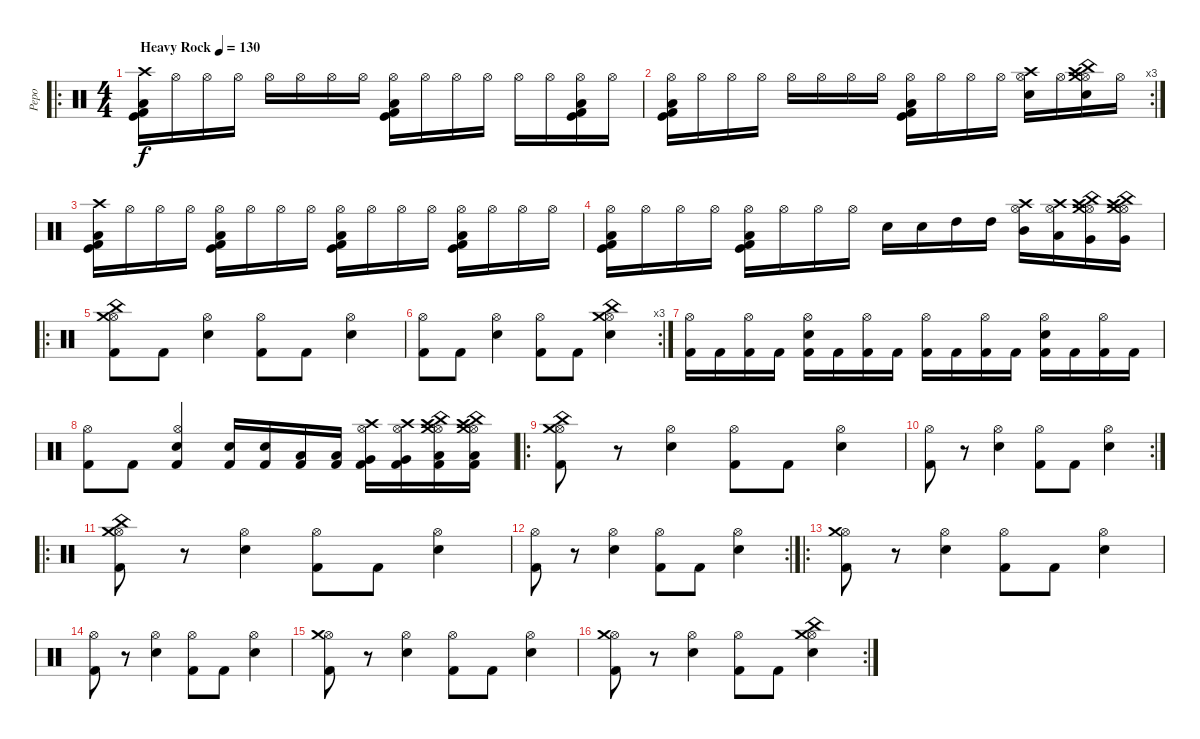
\track ("Pepo" "Pepo") {instrument percussion}
\staff {score}
\articulation defaults
\ro
\ts (4 4)
\tempo (130 "Heavy Rock")
\clef neutral
\ks c
("Crash high (hit)" "Low Floor Tom (hit)" "Kick (hit)" "Kick (hit) 2").16{dy f} "Hi-Hat (open)".16 "Hi-Hat (open)".16 "Hi-Hat (open)".16 "Hi-Hat (open)".16 "Hi-Hat (open)".16 "Hi-Hat (open)".16 "Hi-Hat (open)".16 ("Hi-Hat (open)" "Low Floor Tom (hit)" "Kick (hit)" "Kick (hit) 2").16 "Hi-Hat (open)".16 "Hi-Hat (open)".16 "Hi-Hat (open)".16 "Hi-Hat (open)".16 "Hi-Hat (open)".16 ("Hi-Hat (open)" "Low Floor Tom (hit)" "Kick (hit)" "Kick (hit) 2").16 "Hi-Hat (open)".16 |
\rc 3
("Hi-Hat (open)" "Low Floor Tom (hit)" "Kick (hit)" "Kick (hit) 2").16 "Hi-Hat (open)".16 "Hi-Hat (open)".16 "Hi-Hat (open)".16 "Hi-Hat (open)".16 "Hi-Hat (open)".16 "Hi-Hat (open)".16 "Hi-Hat (open)".16 ("Hi-Hat (open)" "Low Floor Tom (hit)" "Kick (hit)" "Kick (hit) 2").16 "Hi-Hat (open)".16 "Hi-Hat (open)".16 "Hi-Hat (open)".16 ("Hi-Hat (open)" "Crash high (hit)" "Electric Snare (hit)").16 "Hi-Hat (open)".16 ("Hi-Hat (open)" "Crash high (hit)" "China (hit)" "Crash medium (hit)" "Electric Snare (hit)").16 "Hi-Hat (open)".16 |
("Crash high (hit)" "Low Floor Tom (hit)" "Kick (hit)" "Kick (hit) 2").16 "Hi-Hat (open)".16 "Hi-Hat (open)".16 "Hi-Hat (open)".16 ("Hi-Hat (open)" "Low Floor Tom (hit)" "Kick (hit)" "Kick (hit) 2").16 "Hi-Hat (open)".16 "Hi-Hat (open)".16 "Hi-Hat (open)".16 ("Hi-Hat (open)" "Low Floor Tom (hit)" "Kick (hit)" "Kick (hit) 2").16 "Hi-Hat (open)".16 "Hi-Hat (open)".16 "Hi-Hat (open)".16 ("Hi-Hat (open)" "Low Floor Tom (hit)" "Kick (hit)" "Kick (hit) 2").16 "Hi-Hat (open)".16 "Hi-Hat (open)".16 "Hi-Hat (open)".16 |
("Hi-Hat (open)" "Low Floor Tom (hit)" "Kick (hit)" "Kick (hit) 2").16 "Hi-Hat (open)".16 "Hi-Hat (open)".16 "Hi-Hat (open)".16 ("Hi-Hat (open)" "Low Floor Tom (hit)" "Kick (hit)" "Kick (hit) 2").16 "Hi-Hat (open)".16 "Hi-Hat (open)".16 "Hi-Hat (open)".16 "Electric Snare (hit)".16 "Electric Snare (hit)".16 "High Tom (hit)".16 "High Tom (hit)".16 ("Hi-Hat (open)" "Crash high (hit)" "Mid Tom (hit)").16 ("Hi-Hat (open)" "Crash high (hit)" "Low Tom (hit)").16 ("Hi-Hat (open)" "Crash high (hit)" "China (hit)" "Crash medium (hit)" "Very Low Tom (hit)").16 ("Hi-Hat (open)" "Crash high (hit)" "China (hit)" "Crash medium (hit)" "Very Low Tom (hit)").16 |
\ro
("Hi-Hat (open)" "China (hit)" "Crash medium (hit)" "Kick (hit) 2").8 "Kick (hit) 2".8 ("Hi-Hat (open)" "Electric Snare (hit)").4 ("Hi-Hat (open)" "Kick (hit) 2").8 "Kick (hit) 2".8 ("Hi-Hat (open)" "Electric Snare (hit)").4 |
\rc 3
("Hi-Hat (open)" "Kick (hit) 2").8 "Kick (hit) 2".8 ("Hi-Hat (open)" "Electric Snare (hit)").4 ("Hi-Hat (open)" "Kick (hit) 2").8 "Kick (hit) 2".8 ("Hi-Hat (open)" "China (hit)" "Crash medium (hit)" "Electric Snare (hit)").4 |
("Hi-Hat (open)" "Kick (hit) 2").16 "Kick (hit) 2".16 ("Hi-Hat (open)" "Kick (hit) 2").16 "Kick (hit) 2".16 ("Hi-Hat (open)" "Electric Snare (hit)" "Kick (hit) 2").16 "Kick (hit) 2".16 ("Hi-Hat (open)" "Kick (hit) 2").16 "Kick (hit) 2".16 ("Hi-Hat (open)" "Kick (hit) 2").16 "Kick (hit) 2".16 ("Hi-Hat (open)" "Kick (hit) 2").16 "Kick (hit) 2".16 ("Hi-Hat (open)" "Electric Snare (hit)" "Kick (hit) 2").16 "Kick (hit) 2".16 ("Hi-Hat (open)" "Kick (hit) 2").16 "Kick (hit) 2".16 |
("Hi-Hat (open)" "Kick (hit) 2").8 "Kick (hit) 2".8 ("Hi-Hat (open)" "Electric Snare (hit)" "Kick (hit) 2").4 ("Electric Snare (hit)" "Kick (hit) 2").16 ("Electric Snare (hit)" "Kick (hit) 2").16 ("Low Tom (hit)" "Kick (hit) 2").16 ("Low Tom (hit)" "Kick (hit) 2").16 ("Hi-Hat (open)" "Crash high (hit)" "Very Low Tom (hit)" "Kick (hit) 2").16 ("Hi-Hat (open)" "Crash high (hit)" "Very Low Tom (hit)" "Kick (hit) 2").16 ("Hi-Hat (open)" "Crash high (hit)" "China (hit)" "Crash medium (hit)" "Low Floor Tom (hit)" "Kick (hit) 2").16 ("Hi-Hat (open)" "Crash high (hit)" "China (hit)" "Crash medium (hit)" "Low Floor Tom (hit)" "Kick (hit) 2").16 |
\ro
("Hi-Hat (open)" "China (hit)" "Crash medium (hit)" "Kick (hit) 2").8 r.8 ("Hi-Hat (open)" "Electric Snare (hit)").4 ("Hi-Hat (open)" "Kick (hit) 2").8 "Kick (hit) 2".8 ("Hi-Hat (open)" "Electric Snare (hit)").4 |
\rc 2
("Hi-Hat (open)" "Kick (hit) 2").8 r.8 ("Hi-Hat (open)" "Electric Snare (hit)").4 ("Hi-Hat (open)" "Kick (hit) 2").8 "Kick (hit) 2".8 ("Hi-Hat (open)" "Electric Snare (hit)").4 |
\ro
("Hi-Hat (open)" "China (hit)" "Crash medium (hit)" "Kick (hit) 2").8 r.8 ("Hi-Hat (open)" "Electric Snare (hit)").4 ("Hi-Hat (open)" "Kick (hit) 2").8 "Kick (hit) 2".8 ("Hi-Hat (open)" "Electric Snare (hit)").4 |
\rc 2
("Hi-Hat (open)" "Kick (hit) 2").8 r.8 ("Hi-Hat (open)" "Electric Snare (hit)").4 ("Hi-Hat (open)" "Kick (hit) 2").8 "Kick (hit) 2".8 ("Hi-Hat (open)" "Electric Snare (hit)").4 |
\ro
("Hi-Hat (open)" "Crash medium (hit)" "Kick (hit) 2").8 r.8 ("Hi-Hat (open)" "Electric Snare (hit)").4 ("Hi-Hat (open)" "Kick (hit) 2").8 "Kick (hit) 2".8 ("Hi-Hat (open)" "Electric Snare (hit)").4 |
("Hi-Hat (open)" "Kick (hit) 2").8 r.8 ("Hi-Hat (open)" "Electric Snare (hit)").4 ("Hi-Hat (open)" "Kick (hit) 2").8 "Kick (hit) 2".8 ("Hi-Hat (open)" "Electric Snare (hit)").4 |
("Hi-Hat (open)" "Crash medium (hit)" "Kick (hit) 2").8 r.8 ("Hi-Hat (open)" "Electric Snare (hit)").4 ("Hi-Hat (open)" "Kick (hit) 2").8 "Kick (hit) 2".8 ("Hi-Hat (open)" "Electric Snare (hit)").4 |
\rc 2
("Hi-Hat (open)" "Crash medium (hit)" "Kick (hit) 2").8 r.8 ("Hi-Hat (open)" "Electric Snare (hit)").4 ("Hi-Hat (open)" "Kick (hit) 2").8 "Kick (hit) 2".8 ("Hi-Hat (open)" "China (hit)" "Crash medium (hit)" "Electric Snare (hit)").4
